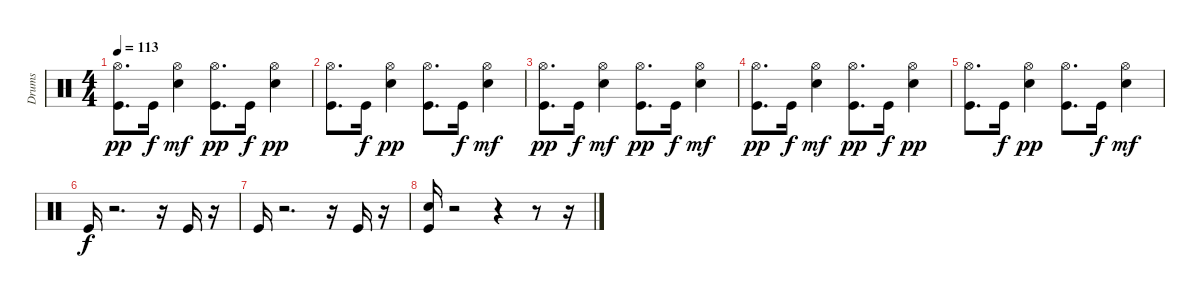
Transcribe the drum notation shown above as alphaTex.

\track ("Drums" "Drums") {instrument percussion}
\staff {score}
\articulation defaults
\ts (4 4)
\tempo 113
\clef neutral
\ks c
("Hi-Hat (open)" "Kick (hit)").8{d dy pp} "Kick (hit)".16{dy f} ("Hi-Hat (open)" "Electric Snare (hit)").4{dy mf} ("Hi-Hat (open)" "Kick (hit)").8{d dy pp} "Kick (hit)".16{dy f} ("Electric Snare (hit)" "Hi-Hat (open)").4{dy pp} |
("Kick (hit)" "Hi-Hat (open)").8{d} "Kick (hit)".16{dy f} ("Electric Snare (hit)" "Hi-Hat (open)").4{dy pp} ("Hi-Hat (open)" "Kick (hit)").8{d} "Kick (hit)".16{dy f} ("Hi-Hat (open)" "Electric Snare (hit)").4{dy mf} |
("Hi-Hat (open)" "Kick (hit)").8{d dy pp} "Kick (hit)".16{dy f} ("Hi-Hat (open)" "Electric Snare (hit)").4{dy mf} ("Hi-Hat (open)" "Kick (hit)").8{d dy pp} "Kick (hit)".16{dy f} ("Hi-Hat (open)" "Electric Snare (hit)").4{dy mf} |
("Hi-Hat (open)" "Kick (hit)").8{d dy pp} "Kick (hit)".16{dy f} ("Hi-Hat (open)" "Electric Snare (hit)").4{dy mf} ("Hi-Hat (open)" "Kick (hit)").8{d dy pp} "Kick (hit)".16{dy f} ("Electric Snare (hit)" "Hi-Hat (open)").4{dy pp} |
("Kick (hit)" "Hi-Hat (open)").8{d} "Kick (hit)".16{dy f} ("Electric Snare (hit)" "Hi-Hat (open)").4{dy pp} ("Hi-Hat (open)" "Kick (hit)").8{d} "Kick (hit)".16{dy f} ("Hi-Hat (open)" "Electric Snare (hit)").4{dy mf} |
"Kick (hit)".16{dy f} r.2{d} r.16 "Kick (hit)".16 r.16 |
"Kick (hit)".16 r.2{d} r.16 "Kick (hit)".16 r.16 |
("Electric Snare (hit)" "Kick (hit)").16 r.2 r.4 r.8 r.16
